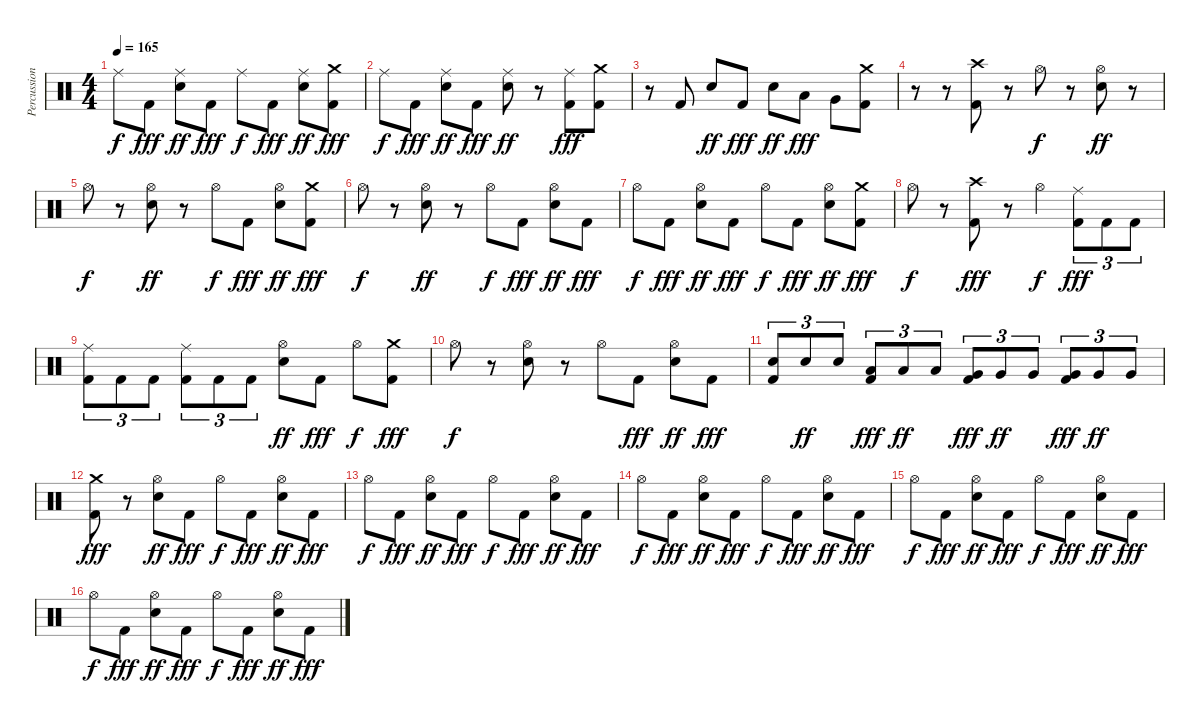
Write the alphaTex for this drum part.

\track ("Percussion" "Percussion") {instrument percussion}
\staff {score}
\articulation defaults
\ts (4 4)
\tempo 165
\clef neutral
\ks c "Ride (middle)".8{dy f} "Kick (hit) 2".8{dy fff}
("Ride (middle)" "Electric Snare (hit)").8{dy ff} "Kick (hit) 2".8{dy fff} "Ride (middle)".8{dy f} "Kick (hit) 2".8{dy fff} ("Ride (middle)" "Electric Snare (hit)").8{dy ff} ("Crash medium (hit)" "Kick (hit) 2").8{dy fff} |
"Ride (middle)".8{dy f} "Kick (hit) 2".8{dy fff} ("Ride (middle)" "Electric Snare (hit)").8{dy ff} "Kick (hit) 2".8{dy fff} ("Ride (middle)" "Electric Snare (hit)").8{dy ff} r.8 ("Ride (middle)" "Kick (hit) 2").8{dy fff} ("Crash medium (hit)" "Kick (hit) 2").8 |
r.8 "Kick (hit) 2".8 "Electric Snare (hit)".8{dy ff} "Kick (hit) 2".8{dy fff} "Electric Snare (hit)".8{dy ff} "Low Tom (hit)".8{dy fff} "Very Low Tom (hit)".8 ("Crash medium (hit)" "Kick (hit) 2").8 |
r.8 r.8 ("Crash high (hit)" "Kick (hit) 2").8 r.8 "Hi-Hat (open)".8{dy f} r.8 ("Hi-Hat (open)" "Electric Snare (hit)").8{dy ff} r.8 |
"Hi-Hat (open)".8{dy f} r.8 ("Hi-Hat (open)" "Electric Snare (hit)").8{dy ff} r.8 "Hi-Hat (open)".8{dy f} "Kick (hit) 2".8{dy fff} ("Hi-Hat (open)" "Electric Snare (hit)").8{dy ff} ("Crash medium (hit)" "Kick (hit) 2").8{dy fff} |
"Hi-Hat (open)".8{dy f} r.8 ("Hi-Hat (open)" "Electric Snare (hit)").8{dy ff} r.8 "Hi-Hat (open)".8{dy f} "Kick (hit) 2".8{dy fff} ("Hi-Hat (open)" "Electric Snare (hit)").8{dy ff} "Kick (hit) 2".8{dy fff} |
"Hi-Hat (open)".8{dy f} "Kick (hit) 2".8{dy fff} ("Hi-Hat (open)" "Electric Snare (hit)").8{dy ff} "Kick (hit) 2".8{dy fff} "Hi-Hat (open)".8{dy f} "Kick (hit) 2".8{dy fff} ("Hi-Hat (open)" "Electric Snare (hit)").8{dy ff} ("Crash medium (hit)" "Kick (hit) 2").8{dy fff} |
"Hi-Hat (open)".8{dy f} r.8 ("Crash high (hit)" "Kick (hit) 2").8{dy fff} r.8 "Hi-Hat (open)".4{dy f} ("Ride (middle)" "Kick (hit) 2").8{tu (3 2) dy fff} "Kick (hit) 2".8{tu (3 2)} "Kick (hit) 2".8{tu (3 2)} |
("Ride (middle)" "Kick (hit) 2").8{tu (3 2)} "Kick (hit) 2".8{tu (3 2)} "Kick (hit) 2".8{tu (3 2)} ("Ride (middle)" "Kick (hit) 2").8{tu (3 2)} "Kick (hit) 2".8{tu (3 2)} "Kick (hit) 2".8{tu (3 2)} ("Hi-Hat (open)" "Electric Snare (hit)").8{dy ff} "Kick (hit) 2".8{dy fff} "Hi-Hat (open)".8{dy f} ("Crash medium (hit)" "Kick (hit) 2").8{dy fff} |
"Hi-Hat (open)".8{dy f} r.8 ("Hi-Hat (open)" "Electric Snare (hit)").8 r.8 "Hi-Hat (open)".8 "Kick (hit) 2".8{dy fff} ("Hi-Hat (open)" "Electric Snare (hit)").8{dy ff} "Kick (hit) 2".8{dy fff} |
("Electric Snare (hit)" "Kick (hit) 2").8{tu (3 2)} "Electric Snare (hit)".8{tu (3 2) dy ff} "Electric Snare (hit)".8{tu (3 2)} ("Low Tom (hit)" "Kick (hit) 2").8{tu (3 2) dy fff} "Low Tom (hit)".8{tu (3 2) dy ff} "Low Tom (hit)".8{tu (3 2)} ("Very Low Tom (hit)" "Kick (hit) 2").8{tu (3 2) dy fff} "Very Low Tom (hit)".8{tu (3 2) dy ff} "Very Low Tom (hit)".8{tu (3 2)} ("Very Low Tom (hit)" "Kick (hit) 2").8{tu (3 2) dy fff} "Very Low Tom (hit)".8{tu (3 2) dy ff} "Very Low Tom (hit)".8{tu (3 2)} |
("Crash medium (hit)" "Kick (hit) 2").8{dy fff} r.8 ("Hi-Hat (open)" "Electric Snare (hit)").8{dy ff} "Kick (hit) 2".8{dy fff} "Hi-Hat (open)".8{dy f} "Kick (hit) 2".8{dy fff} ("Hi-Hat (open)" "Electric Snare (hit)").8{dy ff} "Kick (hit) 2".8{dy fff} |
"Hi-Hat (open)".8{dy f} "Kick (hit) 2".8{dy fff} ("Hi-Hat (open)" "Electric Snare (hit)").8{dy ff} "Kick (hit) 2".8{dy fff} "Hi-Hat (open)".8{dy f} "Kick (hit) 2".8{dy fff} ("Hi-Hat (open)" "Electric Snare (hit)").8{dy ff} "Kick (hit) 2".8{dy fff} |
"Hi-Hat (open)".8{dy f} "Kick (hit) 2".8{dy fff} ("Hi-Hat (open)" "Electric Snare (hit)").8{dy ff} "Kick (hit) 2".8{dy fff} "Hi-Hat (open)".8{dy f} "Kick (hit) 2".8{dy fff} ("Hi-Hat (open)" "Electric Snare (hit)").8{dy ff} "Kick (hit) 2".8{dy fff} |
"Hi-Hat (open)".8{dy f} "Kick (hit) 2".8{dy fff} ("Hi-Hat (open)" "Electric Snare (hit)").8{dy ff} "Kick (hit) 2".8{dy fff} "Hi-Hat (open)".8{dy f} "Kick (hit) 2".8{dy fff} ("Hi-Hat (open)" "Electric Snare (hit)").8{dy ff} "Kick (hit) 2".8{dy fff} |
"Hi-Hat (open)".8{dy f} "Kick (hit) 2".8{dy fff} ("Hi-Hat (open)" "Electric Snare (hit)").8{dy ff} "Kick (hit) 2".8{dy fff} "Hi-Hat (open)".8{dy f} "Kick (hit) 2".8{dy fff} ("Hi-Hat (open)" "Electric Snare (hit)").8{dy ff} "Kick (hit) 2".8{dy fff}
